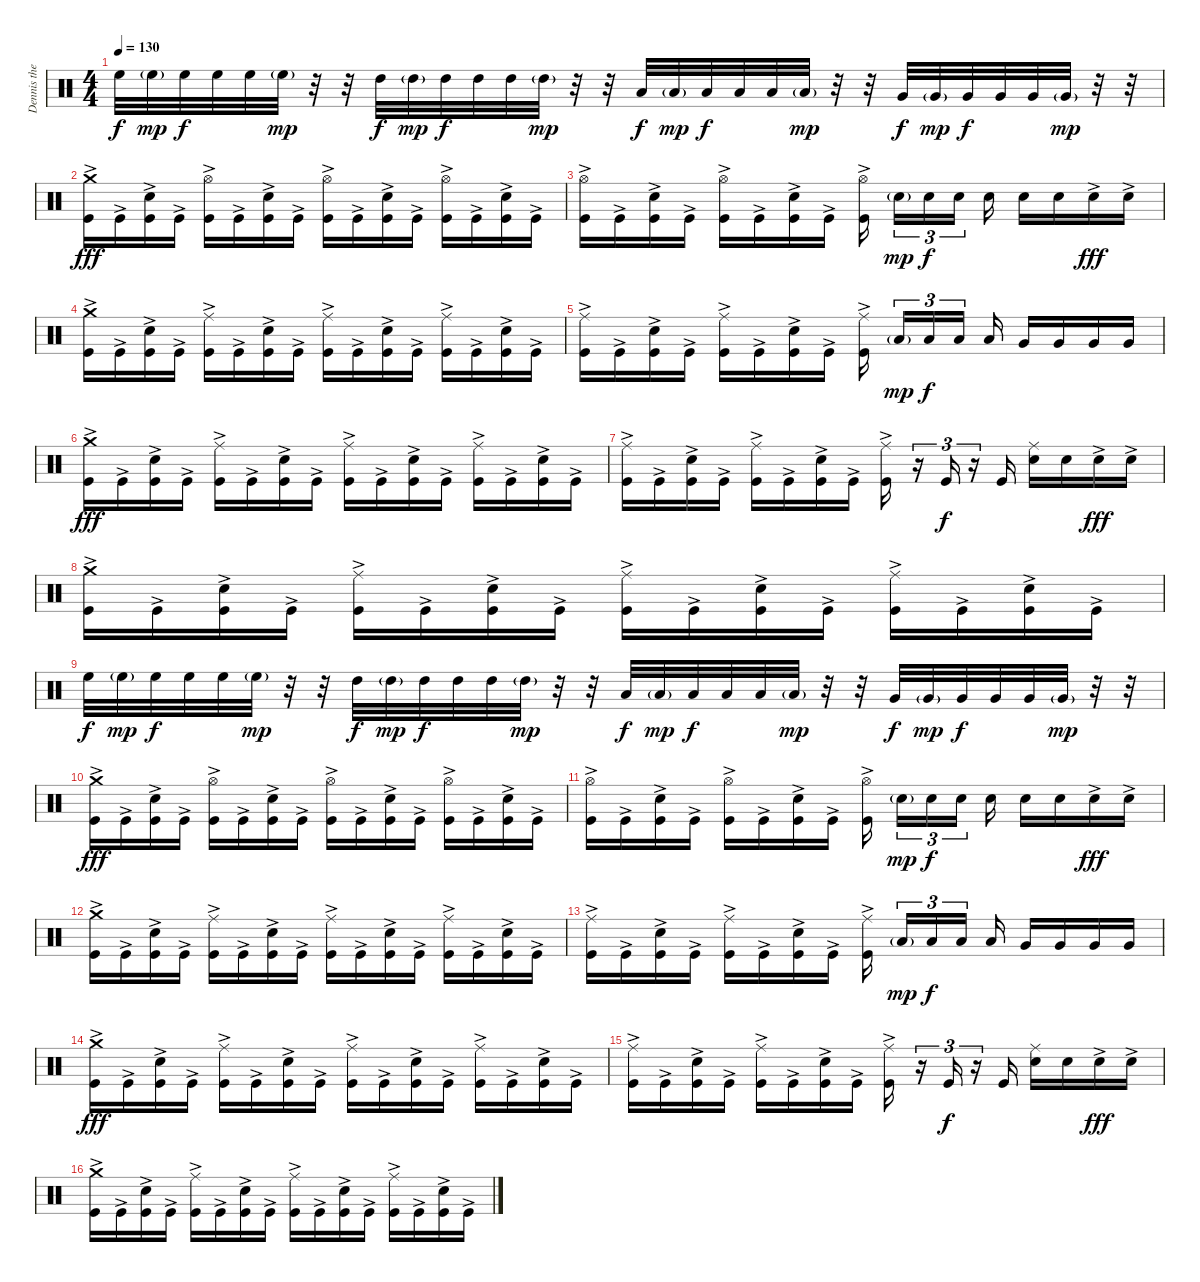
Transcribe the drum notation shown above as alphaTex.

\track ("Dennis the Menace" "Dennis the") {instrument percussion}
\staff {score}
\articulation defaults
\ts (4 4)
\tempo 130
\clef neutral
\ks c "High Floor Tom (hit)".32{dy f} "High Floor Tom (hit)"{g}.32{dy mp} "High Floor Tom (hit)".32{dy f} "High Floor Tom (hit)".32 "High Floor Tom (hit)".32 "High Floor Tom (hit)"{g}.32{dy mp}
r.32 r.32 "High Tom (hit)".32{dy f} "High Tom (hit)"{g}.32{dy mp} "High Tom (hit)".32{dy f} "High Tom (hit)".32 "High Tom (hit)".32 "High Tom (hit)"{g}.32{dy mp} r.32 r.32 "Low Tom (hit)".32{dy f} "Low Tom (hit)"{g}.32{dy mp} "Low Tom (hit)".32{dy f} "Low Tom (hit)".32 "Low Tom (hit)".32 "Low Tom (hit)"{g}.32{dy mp} r.32 r.32 "Very Low Tom (hit)".32{dy f} "Very Low Tom (hit)"{g}.32{dy mp} "Very Low Tom (hit)".32{dy f} "Very Low Tom (hit)".32 "Very Low Tom (hit)".32 "Very Low Tom (hit)"{g}.32{dy mp} r.32 r.32 |
("Crash medium (hit)" "Kick (hit)"{ac}).16{dy fff} "Kick (hit)"{ac}.16 ("Electric Snare (hit)" "Kick (hit)"{ac}).16 "Kick (hit)"{ac}.16 ("Hi-Hat (open)" "Kick (hit)"{ac}).16 "Kick (hit)"{ac}.16 ("Electric Snare (hit)" "Kick (hit)"{ac}).16 "Kick (hit)"{ac}.16 ("Hi-Hat (open)" "Kick (hit)"{ac}).16 "Kick (hit)"{ac}.16 ("Electric Snare (hit)" "Kick (hit)"{ac}).16 "Kick (hit)"{ac}.16 ("Hi-Hat (open)" "Kick (hit)"{ac}).16 "Kick (hit)"{ac}.16 ("Electric Snare (hit)" "Kick (hit)"{ac}).16 "Kick (hit)"{ac}.16 |
("Hi-Hat (open)" "Kick (hit)"{ac}).16 "Kick (hit)"{ac}.16 ("Electric Snare (hit)" "Kick (hit)"{ac}).16 "Kick (hit)"{ac}.16 ("Hi-Hat (open)" "Kick (hit)"{ac}).16 "Kick (hit)"{ac}.16 ("Electric Snare (hit)" "Kick (hit)"{ac}).16 "Kick (hit)"{ac}.16 ("Hi-Hat (open)" "Kick (hit)"{ac}).16 "Electric Snare (hit)"{g}.16{tu (3 2) dy mp} "Electric Snare (hit)".16{tu (3 2) dy f} "Electric Snare (hit)".16{tu (3 2)} "Electric Snare (hit)".16 "Electric Snare (hit)".16 "Electric Snare (hit)".16 "Electric Snare (hit)"{ac}.16{dy fff} "Electric Snare (hit)"{ac}.16 |
("Crash medium (hit)" "Kick (hit)"{ac}).16 "Kick (hit)"{ac}.16 ("Electric Snare (hit)" "Kick (hit)"{ac}).16 "Kick (hit)"{ac}.16 ("Ride (middle)"{ac} "Kick (hit)"{ac}).16 "Kick (hit)"{ac}.16 ("Electric Snare (hit)" "Kick (hit)"{ac}).16 "Kick (hit)"{ac}.16 ("Ride (middle)"{ac} "Kick (hit)"{ac}).16 "Kick (hit)"{ac}.16 ("Electric Snare (hit)" "Kick (hit)"{ac}).16 "Kick (hit)"{ac}.16 ("Ride (middle)"{ac} "Kick (hit)"{ac}).16 "Kick (hit)"{ac}.16 ("Electric Snare (hit)" "Kick (hit)"{ac}).16 "Kick (hit)"{ac}.16 |
("Ride (middle)"{ac} "Kick (hit)"{ac}).16 "Kick (hit)"{ac}.16 ("Electric Snare (hit)" "Kick (hit)"{ac}).16 "Kick (hit)"{ac}.16 ("Ride (middle)"{ac} "Kick (hit)"{ac}).16 "Kick (hit)"{ac}.16 ("Electric Snare (hit)" "Kick (hit)"{ac}).16 "Kick (hit)"{ac}.16 ("Ride (middle)"{ac} "Kick (hit)"{ac}).16 "Low Tom (hit)"{g}.16{tu (3 2) dy mp} "Low Tom (hit)".16{tu (3 2) dy f} "Low Tom (hit)".16{tu (3 2)} "Low Tom (hit)".16 "Very Low Tom (hit)".16 "Very Low Tom (hit)".16 "Very Low Tom (hit)".16 "Very Low Tom (hit)".16 |
("Crash medium (hit)" "Kick (hit)"{ac}).16{dy fff} "Kick (hit)"{ac}.16 ("Electric Snare (hit)" "Kick (hit)"{ac}).16 "Kick (hit)"{ac}.16 ("Ride (middle)" "Kick (hit)"{ac}).16 "Kick (hit)"{ac}.16 ("Electric Snare (hit)" "Kick (hit)"{ac}).16 "Kick (hit)"{ac}.16 ("Ride (middle)" "Kick (hit)"{ac}).16 "Kick (hit)"{ac}.16 ("Electric Snare (hit)" "Kick (hit)"{ac}).16 "Kick (hit)"{ac}.16 ("Ride (middle)" "Kick (hit)"{ac}).16 "Kick (hit)"{ac}.16 ("Electric Snare (hit)" "Kick (hit)"{ac}).16 "Kick (hit)"{ac}.16 |
("Ride (middle)" "Kick (hit)"{ac}).16 "Kick (hit)"{ac}.16 ("Electric Snare (hit)" "Kick (hit)"{ac}).16 "Kick (hit)"{ac}.16 ("Ride (middle)" "Kick (hit)"{ac}).16 "Kick (hit)"{ac}.16 ("Electric Snare (hit)" "Kick (hit)"{ac}).16 "Kick (hit)"{ac}.16 ("Ride (middle)" "Kick (hit)"{ac}).16 r.16{tu (3 2)} "Kick (hit)".16{tu (3 2) dy f} r.16{tu (3 2)} "Kick (hit)".16 ("Ride (middle)" "Electric Snare (hit)").16 "Electric Snare (hit)".16 "Electric Snare (hit)"{ac}.16{dy fff} "Electric Snare (hit)"{ac}.16 |
("Crash medium (hit)" "Kick (hit)"{ac}).16 "Kick (hit)"{ac}.16 ("Electric Snare (hit)" "Kick (hit)"{ac}).16 "Kick (hit)"{ac}.16 ("Ride (middle)"{ac} "Kick (hit)"{ac}).16 "Kick (hit)"{ac}.16 ("Electric Snare (hit)" "Kick (hit)"{ac}).16 "Kick (hit)"{ac}.16 ("Ride (middle)"{ac} "Kick (hit)"{ac}).16 "Kick (hit)"{ac}.16 ("Electric Snare (hit)" "Kick (hit)"{ac}).16 "Kick (hit)"{ac}.16 ("Ride (middle)"{ac} "Kick (hit)"{ac}).16 "Kick (hit)"{ac}.16 ("Electric Snare (hit)" "Kick (hit)"{ac}).16 "Kick (hit)"{ac}.16 |
"High Floor Tom (hit)".32{dy f} "High Floor Tom (hit)"{g}.32{dy mp} "High Floor Tom (hit)".32{dy f} "High Floor Tom (hit)".32 "High Floor Tom (hit)".32 "High Floor Tom (hit)"{g}.32{dy mp} r.32 r.32 "High Tom (hit)".32{dy f} "High Tom (hit)"{g}.32{dy mp} "High Tom (hit)".32{dy f} "High Tom (hit)".32 "High Tom (hit)".32 "High Tom (hit)"{g}.32{dy mp} r.32 r.32 "Low Tom (hit)".32{dy f} "Low Tom (hit)"{g}.32{dy mp} "Low Tom (hit)".32{dy f} "Low Tom (hit)".32 "Low Tom (hit)".32 "Low Tom (hit)"{g}.32{dy mp} r.32 r.32 "Very Low Tom (hit)".32{dy f} "Very Low Tom (hit)"{g}.32{dy mp} "Very Low Tom (hit)".32{dy f} "Very Low Tom (hit)".32 "Very Low Tom (hit)".32 "Very Low Tom (hit)"{g}.32{dy mp} r.32 r.32 |
("Crash medium (hit)" "Kick (hit)"{ac}).16{dy fff} "Kick (hit)"{ac}.16 ("Electric Snare (hit)" "Kick (hit)"{ac}).16 "Kick (hit)"{ac}.16 ("Hi-Hat (open)" "Kick (hit)"{ac}).16 "Kick (hit)"{ac}.16 ("Electric Snare (hit)" "Kick (hit)"{ac}).16 "Kick (hit)"{ac}.16 ("Hi-Hat (open)" "Kick (hit)"{ac}).16 "Kick (hit)"{ac}.16 ("Electric Snare (hit)" "Kick (hit)"{ac}).16 "Kick (hit)"{ac}.16 ("Hi-Hat (open)" "Kick (hit)"{ac}).16 "Kick (hit)"{ac}.16 ("Electric Snare (hit)" "Kick (hit)"{ac}).16 "Kick (hit)"{ac}.16 |
("Hi-Hat (open)" "Kick (hit)"{ac}).16 "Kick (hit)"{ac}.16 ("Electric Snare (hit)" "Kick (hit)"{ac}).16 "Kick (hit)"{ac}.16 ("Hi-Hat (open)" "Kick (hit)"{ac}).16 "Kick (hit)"{ac}.16 ("Electric Snare (hit)" "Kick (hit)"{ac}).16 "Kick (hit)"{ac}.16 ("Hi-Hat (open)" "Kick (hit)"{ac}).16 "Electric Snare (hit)"{g}.16{tu (3 2) dy mp} "Electric Snare (hit)".16{tu (3 2) dy f} "Electric Snare (hit)".16{tu (3 2)} "Electric Snare (hit)".16 "Electric Snare (hit)".16 "Electric Snare (hit)".16 "Electric Snare (hit)"{ac}.16{dy fff} "Electric Snare (hit)"{ac}.16 |
("Crash medium (hit)" "Kick (hit)"{ac}).16 "Kick (hit)"{ac}.16 ("Electric Snare (hit)" "Kick (hit)"{ac}).16 "Kick (hit)"{ac}.16 ("Ride (middle)"{ac} "Kick (hit)"{ac}).16 "Kick (hit)"{ac}.16 ("Electric Snare (hit)" "Kick (hit)"{ac}).16 "Kick (hit)"{ac}.16 ("Ride (middle)"{ac} "Kick (hit)"{ac}).16 "Kick (hit)"{ac}.16 ("Electric Snare (hit)" "Kick (hit)"{ac}).16 "Kick (hit)"{ac}.16 ("Ride (middle)"{ac} "Kick (hit)"{ac}).16 "Kick (hit)"{ac}.16 ("Electric Snare (hit)" "Kick (hit)"{ac}).16 "Kick (hit)"{ac}.16 |
("Ride (middle)"{ac} "Kick (hit)"{ac}).16 "Kick (hit)"{ac}.16 ("Electric Snare (hit)" "Kick (hit)"{ac}).16 "Kick (hit)"{ac}.16 ("Ride (middle)"{ac} "Kick (hit)"{ac}).16 "Kick (hit)"{ac}.16 ("Electric Snare (hit)" "Kick (hit)"{ac}).16 "Kick (hit)"{ac}.16 ("Ride (middle)"{ac} "Kick (hit)"{ac}).16 "Low Tom (hit)"{g}.16{tu (3 2) dy mp} "Low Tom (hit)".16{tu (3 2) dy f} "Low Tom (hit)".16{tu (3 2)} "Low Tom (hit)".16 "Very Low Tom (hit)".16 "Very Low Tom (hit)".16 "Very Low Tom (hit)".16 "Very Low Tom (hit)".16 |
("Crash medium (hit)" "Kick (hit)"{ac}).16{dy fff} "Kick (hit)"{ac}.16 ("Electric Snare (hit)" "Kick (hit)"{ac}).16 "Kick (hit)"{ac}.16 ("Ride (middle)" "Kick (hit)"{ac}).16 "Kick (hit)"{ac}.16 ("Electric Snare (hit)" "Kick (hit)"{ac}).16 "Kick (hit)"{ac}.16 ("Ride (middle)" "Kick (hit)"{ac}).16 "Kick (hit)"{ac}.16 ("Electric Snare (hit)" "Kick (hit)"{ac}).16 "Kick (hit)"{ac}.16 ("Ride (middle)" "Kick (hit)"{ac}).16 "Kick (hit)"{ac}.16 ("Electric Snare (hit)" "Kick (hit)"{ac}).16 "Kick (hit)"{ac}.16 |
("Ride (middle)" "Kick (hit)"{ac}).16 "Kick (hit)"{ac}.16 ("Electric Snare (hit)" "Kick (hit)"{ac}).16 "Kick (hit)"{ac}.16 ("Ride (middle)" "Kick (hit)"{ac}).16 "Kick (hit)"{ac}.16 ("Electric Snare (hit)" "Kick (hit)"{ac}).16 "Kick (hit)"{ac}.16 ("Ride (middle)" "Kick (hit)"{ac}).16 r.16{tu (3 2)} "Kick (hit)".16{tu (3 2) dy f} r.16{tu (3 2)} "Kick (hit)".16 ("Ride (middle)" "Electric Snare (hit)").16 "Electric Snare (hit)".16 "Electric Snare (hit)"{ac}.16{dy fff} "Electric Snare (hit)"{ac}.16 |
("Crash medium (hit)" "Kick (hit)"{ac}).16 "Kick (hit)"{ac}.16 ("Electric Snare (hit)" "Kick (hit)"{ac}).16 "Kick (hit)"{ac}.16 ("Ride (middle)"{ac} "Kick (hit)"{ac}).16 "Kick (hit)"{ac}.16 ("Electric Snare (hit)" "Kick (hit)"{ac}).16 "Kick (hit)"{ac}.16 ("Ride (middle)"{ac} "Kick (hit)"{ac}).16 "Kick (hit)"{ac}.16 ("Electric Snare (hit)" "Kick (hit)"{ac}).16 "Kick (hit)"{ac}.16 ("Ride (middle)"{ac} "Kick (hit)"{ac}).16 "Kick (hit)"{ac}.16 ("Electric Snare (hit)" "Kick (hit)"{ac}).16 "Kick (hit)"{ac}.16
